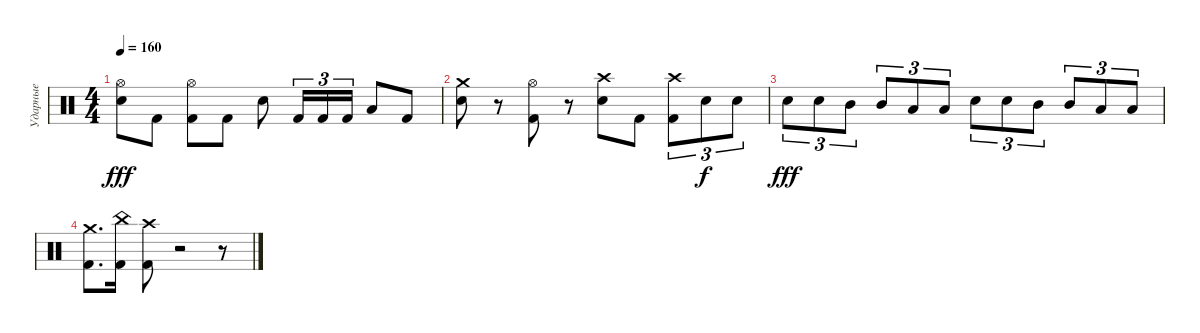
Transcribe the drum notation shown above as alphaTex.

\track ("Ударные" "Ударные") {instrument percussion}
\staff {score}
\articulation defaults
\ts (4 4)
\tempo 160
\clef neutral
\ks c
("Hi-Hat (open)" "Electric Snare (hit)").8{dy fff} "Kick (hit) 2".8 ("Hi-Hat (open)" "Kick (hit) 2").8 "Kick (hit) 2".8 "Electric Snare (hit)".8 "Kick (hit) 2".16{tu (3 2)} "Kick (hit) 2".16{tu (3 2)} "Kick (hit) 2".16{tu (3 2)} "Low Floor Tom (hit)".8 "Kick (hit) 2".8 |
("Crash medium (hit)" "Electric Snare (hit)").8 r.8 ("Hi-Hat (open)" "Kick (hit) 2").8 r.8 ("Crash high (hit)" "Electric Snare (hit)").8 "Kick (hit) 2".8 ("Crash high (hit)" "Kick (hit) 2").8{tu (3 2)} "Electric Snare (hit)".8{tu (3 2) dy f} "Electric Snare (hit)".8{tu (3 2)} |
"Electric Snare (hit)".8{tu (3 2) dy fff} "Electric Snare (hit)".8{tu (3 2)} "Mid Tom (hit)".8{tu (3 2)} "Mid Tom (hit)".8{tu (3 2)} "Low Tom (hit)".8{tu (3 2)} "Low Tom (hit)".8{tu (3 2)} "Electric Snare (hit)".8{tu (3 2)} "Electric Snare (hit)".8{tu (3 2)} "Mid Tom (hit)".8{tu (3 2)} "Mid Tom (hit)".8{tu (3 2)} "Low Tom (hit)".8{tu (3 2)} "Low Tom (hit)".8{tu (3 2)} |
("Crash medium (hit)" "Kick (hit) 2").8{d} ("China (hit)" "Kick (hit) 2").16 ("Crash high (hit)" "Kick (hit) 2").8 r.2 r.8
